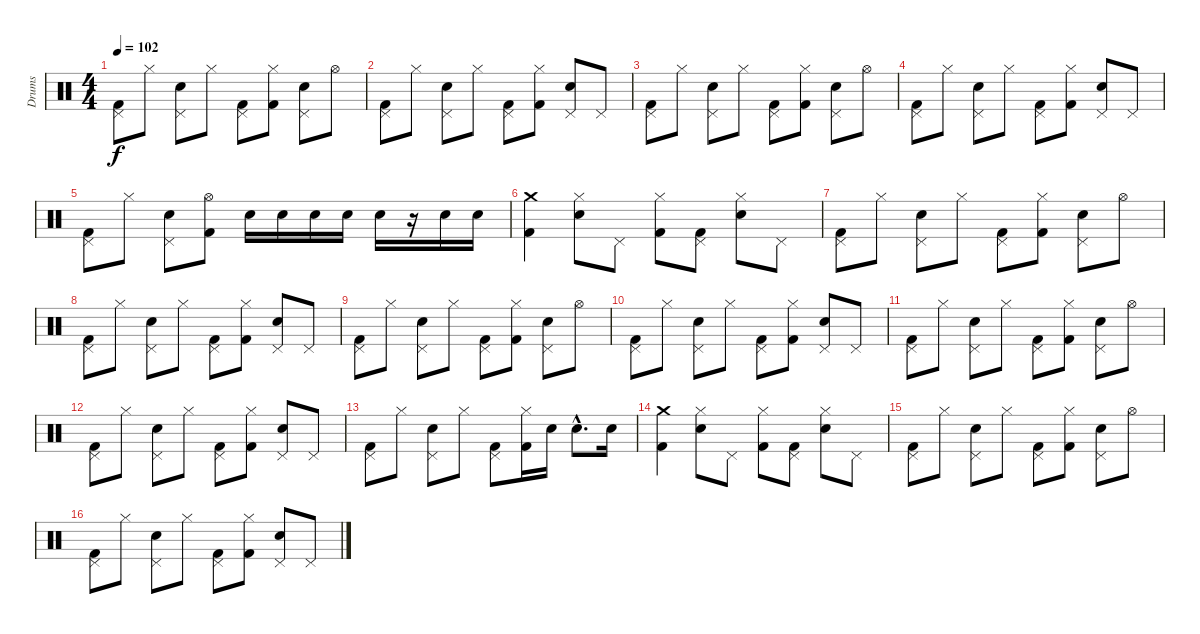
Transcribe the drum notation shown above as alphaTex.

\track ("Drums" "Drums") {instrument percussion}
\staff {score}
\articulation defaults
\ts (4 4)
\tempo 102
\clef neutral
\ks c
("Pedal Hi-Hat (hit)" "Kick (hit) 2").8{dy f} "Hi-Hat (closed)".8 ("Pedal Hi-Hat (hit)" "Electric Snare (hit)").8 "Hi-Hat (closed)".8 ("Pedal Hi-Hat (hit)" "Kick (hit) 2").8 ("Hi-Hat (closed)" "Kick (hit) 2").8 ("Pedal Hi-Hat (hit)" "Electric Snare (hit)").8 "Hi-Hat (open)".8 |
("Pedal Hi-Hat (hit)" "Kick (hit) 2").8 "Hi-Hat (closed)".8 ("Pedal Hi-Hat (hit)" "Electric Snare (hit)").8 "Hi-Hat (closed)".8 ("Pedal Hi-Hat (hit)" "Kick (hit) 2").8 ("Hi-Hat (closed)" "Kick (hit) 2").8 ("Pedal Hi-Hat (hit)" "Electric Snare (hit)").8 "Pedal Hi-Hat (hit)".8 |
("Pedal Hi-Hat (hit)" "Kick (hit) 2").8 "Hi-Hat (closed)".8 ("Pedal Hi-Hat (hit)" "Electric Snare (hit)").8 "Hi-Hat (closed)".8 ("Pedal Hi-Hat (hit)" "Kick (hit) 2").8 ("Hi-Hat (closed)" "Kick (hit) 2").8 ("Pedal Hi-Hat (hit)" "Electric Snare (hit)").8 "Hi-Hat (open)".8 |
("Pedal Hi-Hat (hit)" "Kick (hit) 2").8 "Hi-Hat (closed)".8 ("Pedal Hi-Hat (hit)" "Electric Snare (hit)").8 "Hi-Hat (closed)".8 ("Pedal Hi-Hat (hit)" "Kick (hit) 2").8 ("Hi-Hat (closed)" "Kick (hit) 2").8 ("Pedal Hi-Hat (hit)" "Electric Snare (hit)").8 "Pedal Hi-Hat (hit)".8 |
("Pedal Hi-Hat (hit)" "Kick (hit) 2").8 "Hi-Hat (closed)".8 ("Pedal Hi-Hat (hit)" "Electric Snare (hit)").8 ("Hi-Hat (open)" "Kick (hit) 2").8 "Electric Snare (hit)".16 "Electric Snare (hit)".16 "Electric Snare (hit)".16 "Electric Snare (hit)".16 "Electric Snare (hit)".16 r.16 "Electric Snare (hit)".16 "Electric Snare (hit)".16 |
("Crash medium (hit)" "Kick (hit) 2").4 ("Hi-Hat (closed)" "Electric Snare (hit)").8 "Pedal Hi-Hat (hit)".8 ("Hi-Hat (closed)" "Kick (hit) 2").8 ("Pedal Hi-Hat (hit)" "Kick (hit) 2").8 ("Hi-Hat (closed)" "Electric Snare (hit)").8 "Pedal Hi-Hat (hit)".8 |
("Pedal Hi-Hat (hit)" "Kick (hit) 2").8 "Hi-Hat (closed)".8 ("Pedal Hi-Hat (hit)" "Electric Snare (hit)").8 "Hi-Hat (closed)".8 ("Pedal Hi-Hat (hit)" "Kick (hit) 2").8 ("Hi-Hat (closed)" "Kick (hit) 2").8 ("Pedal Hi-Hat (hit)" "Electric Snare (hit)").8 "Hi-Hat (open)".8 |
("Pedal Hi-Hat (hit)" "Kick (hit) 2").8 "Hi-Hat (closed)".8 ("Pedal Hi-Hat (hit)" "Electric Snare (hit)").8 "Hi-Hat (closed)".8 ("Pedal Hi-Hat (hit)" "Kick (hit) 2").8 ("Hi-Hat (closed)" "Kick (hit) 2").8 ("Pedal Hi-Hat (hit)" "Electric Snare (hit)").8 "Pedal Hi-Hat (hit)".8 |
("Pedal Hi-Hat (hit)" "Kick (hit) 2").8 "Hi-Hat (closed)".8 ("Pedal Hi-Hat (hit)" "Electric Snare (hit)").8 "Hi-Hat (closed)".8 ("Pedal Hi-Hat (hit)" "Kick (hit) 2").8 ("Hi-Hat (closed)" "Kick (hit) 2").8 ("Pedal Hi-Hat (hit)" "Electric Snare (hit)").8 "Hi-Hat (open)".8 |
("Pedal Hi-Hat (hit)" "Kick (hit) 2").8 "Hi-Hat (closed)".8 ("Pedal Hi-Hat (hit)" "Electric Snare (hit)").8 "Hi-Hat (closed)".8 ("Pedal Hi-Hat (hit)" "Kick (hit) 2").8 ("Hi-Hat (closed)" "Kick (hit) 2").8 ("Pedal Hi-Hat (hit)" "Electric Snare (hit)").8 "Pedal Hi-Hat (hit)".8 |
("Pedal Hi-Hat (hit)" "Kick (hit) 2").8 "Hi-Hat (closed)".8 ("Pedal Hi-Hat (hit)" "Electric Snare (hit)").8 "Hi-Hat (closed)".8 ("Pedal Hi-Hat (hit)" "Kick (hit) 2").8 ("Hi-Hat (closed)" "Kick (hit) 2").8 ("Pedal Hi-Hat (hit)" "Electric Snare (hit)").8 "Hi-Hat (open)".8 |
("Pedal Hi-Hat (hit)" "Kick (hit) 2").8 "Hi-Hat (closed)".8 ("Pedal Hi-Hat (hit)" "Electric Snare (hit)").8 "Hi-Hat (closed)".8 ("Pedal Hi-Hat (hit)" "Kick (hit) 2").8 ("Hi-Hat (closed)" "Kick (hit) 2").8 ("Pedal Hi-Hat (hit)" "Electric Snare (hit)").8 "Pedal Hi-Hat (hit)".8 |
("Pedal Hi-Hat (hit)" "Kick (hit) 2").8 "Hi-Hat (closed)".8 ("Pedal Hi-Hat (hit)" "Electric Snare (hit)").8 "Hi-Hat (closed)".8 ("Pedal Hi-Hat (hit)" "Kick (hit) 2").8 ("Hi-Hat (closed)" "Kick (hit) 2").16 "Electric Snare (hit)".16 "Electric Snare (hit)"{hac}.8{d} "Electric Snare (hit)".16 |
("Crash medium (hit)" "Kick (hit) 2").4 ("Hi-Hat (closed)" "Electric Snare (hit)").8 "Pedal Hi-Hat (hit)".8 ("Hi-Hat (closed)" "Kick (hit) 2").8 ("Pedal Hi-Hat (hit)" "Kick (hit) 2").8 ("Hi-Hat (closed)" "Electric Snare (hit)").8 "Pedal Hi-Hat (hit)".8 |
("Pedal Hi-Hat (hit)" "Kick (hit) 2").8 "Hi-Hat (closed)".8 ("Pedal Hi-Hat (hit)" "Electric Snare (hit)").8 "Hi-Hat (closed)".8 ("Pedal Hi-Hat (hit)" "Kick (hit) 2").8 ("Hi-Hat (closed)" "Kick (hit) 2").8 ("Pedal Hi-Hat (hit)" "Electric Snare (hit)").8 "Hi-Hat (open)".8 |
("Pedal Hi-Hat (hit)" "Kick (hit) 2").8 "Hi-Hat (closed)".8 ("Pedal Hi-Hat (hit)" "Electric Snare (hit)").8 "Hi-Hat (closed)".8 ("Pedal Hi-Hat (hit)" "Kick (hit) 2").8 ("Hi-Hat (closed)" "Kick (hit) 2").8 ("Pedal Hi-Hat (hit)" "Electric Snare (hit)").8 "Pedal Hi-Hat (hit)".8
